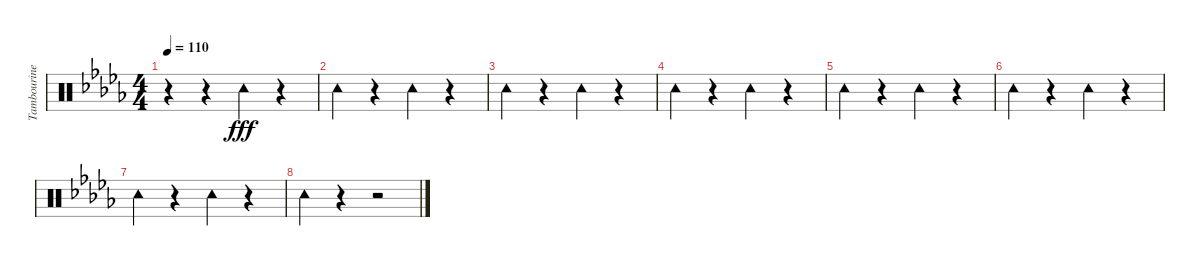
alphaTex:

\track ("Tambourine" "Tambourine") {instrument percussion}
\staff {score}
\articulation defaults
\ts (4 4)
\tempo 110
\clef neutral
\ks db
r.4{dy fff} r.4 "Tambourine (hit)".4 r.4 |
"Tambourine (hit)".4 r.4 "Tambourine (hit)".4 r.4 |
"Tambourine (hit)".4 r.4 "Tambourine (hit)".4 r.4 |
"Tambourine (hit)".4 r.4 "Tambourine (hit)".4 r.4 |
"Tambourine (hit)".4 r.4 "Tambourine (hit)".4 r.4 |
"Tambourine (hit)".4 r.4 "Tambourine (hit)".4 r.4 |
"Tambourine (hit)".4 r.4 "Tambourine (hit)".4 r.4 |
"Tambourine (hit)".4 r.4 r.2
